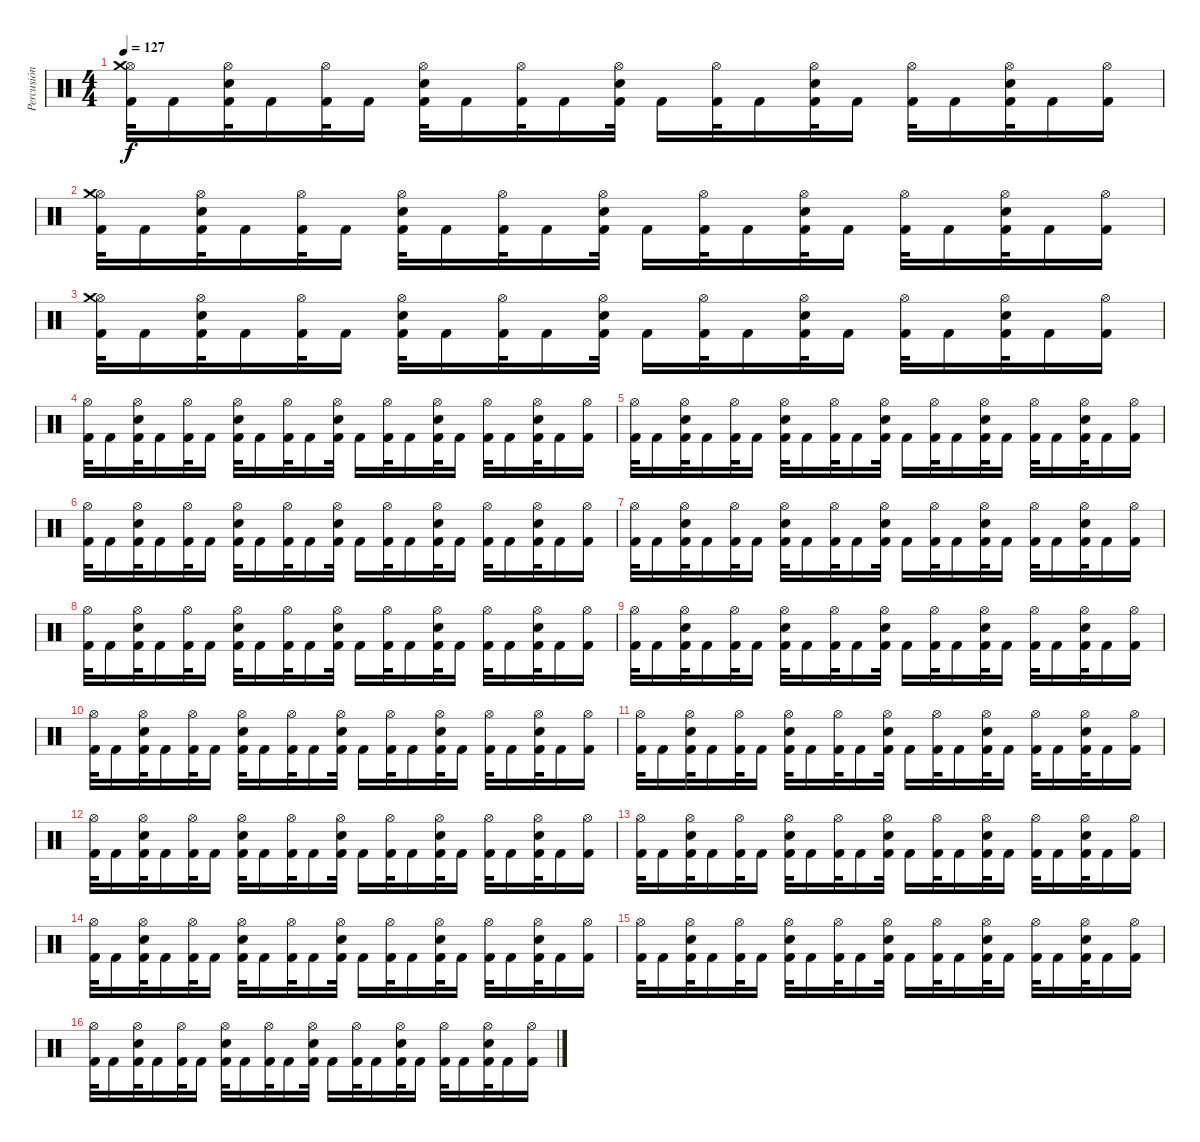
\track ("Percusión" "Percusión") {instrument percussion}
\staff {score}
\articulation defaults
\ts (4 4)
\tempo 127
\clef neutral
\ks c
("Hi-Hat (open)" "Kick (hit) 2" "Crash medium (hit)").32{dy f} "Kick (hit) 2".16 ("Hi-Hat (open)" "Electric Snare (hit)" "Kick (hit) 2").32 "Kick (hit) 2".16 ("Hi-Hat (open)" "Kick (hit) 2").32 "Kick (hit) 2".16 ("Hi-Hat (open)" "Electric Snare (hit)" "Kick (hit) 2").32 "Kick (hit) 2".16 ("Hi-Hat (open)" "Kick (hit) 2").32 "Kick (hit) 2".16 ("Hi-Hat (open)" "Electric Snare (hit)" "Kick (hit) 2").32 "Kick (hit) 2".16 ("Hi-Hat (open)" "Kick (hit) 2").32 "Kick (hit) 2".16 ("Hi-Hat (open)" "Electric Snare (hit)" "Kick (hit) 2").32 "Kick (hit) 2".16 ("Hi-Hat (open)" "Kick (hit) 2").32 "Kick (hit) 2".16 ("Hi-Hat (open)" "Electric Snare (hit)" "Kick (hit) 2").32 "Kick (hit) 2".16 ("Hi-Hat (open)" "Kick (hit) 2").16 |
("Hi-Hat (open)" "Kick (hit) 2" "Crash medium (hit)").32 "Kick (hit) 2".16 ("Hi-Hat (open)" "Electric Snare (hit)" "Kick (hit) 2").32 "Kick (hit) 2".16 ("Hi-Hat (open)" "Kick (hit) 2").32 "Kick (hit) 2".16 ("Hi-Hat (open)" "Electric Snare (hit)" "Kick (hit) 2").32 "Kick (hit) 2".16 ("Hi-Hat (open)" "Kick (hit) 2").32 "Kick (hit) 2".16 ("Hi-Hat (open)" "Electric Snare (hit)" "Kick (hit) 2").32 "Kick (hit) 2".16 ("Hi-Hat (open)" "Kick (hit) 2").32 "Kick (hit) 2".16 ("Hi-Hat (open)" "Electric Snare (hit)" "Kick (hit) 2").32 "Kick (hit) 2".16 ("Hi-Hat (open)" "Kick (hit) 2").32 "Kick (hit) 2".16 ("Hi-Hat (open)" "Electric Snare (hit)" "Kick (hit) 2").32 "Kick (hit) 2".16 ("Hi-Hat (open)" "Kick (hit) 2").16 |
("Hi-Hat (open)" "Kick (hit) 2" "Crash medium (hit)").32 "Kick (hit) 2".16 ("Hi-Hat (open)" "Electric Snare (hit)" "Kick (hit) 2").32 "Kick (hit) 2".16 ("Hi-Hat (open)" "Kick (hit) 2").32 "Kick (hit) 2".16 ("Hi-Hat (open)" "Electric Snare (hit)" "Kick (hit) 2").32 "Kick (hit) 2".16 ("Hi-Hat (open)" "Kick (hit) 2").32 "Kick (hit) 2".16 ("Hi-Hat (open)" "Electric Snare (hit)" "Kick (hit) 2").32 "Kick (hit) 2".16 ("Hi-Hat (open)" "Kick (hit) 2").32 "Kick (hit) 2".16 ("Hi-Hat (open)" "Electric Snare (hit)" "Kick (hit) 2").32 "Kick (hit) 2".16 ("Hi-Hat (open)" "Kick (hit) 2").32 "Kick (hit) 2".16 ("Hi-Hat (open)" "Electric Snare (hit)" "Kick (hit) 2").32 "Kick (hit) 2".16 ("Hi-Hat (open)" "Kick (hit) 2").16 |
("Hi-Hat (open)" "Kick (hit) 2").32 "Kick (hit) 2".16 ("Hi-Hat (open)" "Electric Snare (hit)" "Kick (hit) 2").32 "Kick (hit) 2".16 ("Hi-Hat (open)" "Kick (hit) 2").32 "Kick (hit) 2".16 ("Hi-Hat (open)" "Electric Snare (hit)" "Kick (hit) 2").32 "Kick (hit) 2".16 ("Hi-Hat (open)" "Kick (hit) 2").32 "Kick (hit) 2".16 ("Hi-Hat (open)" "Electric Snare (hit)" "Kick (hit) 2").32 "Kick (hit) 2".16 ("Hi-Hat (open)" "Kick (hit) 2").32 "Kick (hit) 2".16 ("Hi-Hat (open)" "Electric Snare (hit)" "Kick (hit) 2").32 "Kick (hit) 2".16 ("Hi-Hat (open)" "Kick (hit) 2").32 "Kick (hit) 2".16 ("Hi-Hat (open)" "Electric Snare (hit)" "Kick (hit) 2").32 "Kick (hit) 2".16 ("Hi-Hat (open)" "Kick (hit) 2").16 |
("Hi-Hat (open)" "Kick (hit) 2").32 "Kick (hit) 2".16 ("Hi-Hat (open)" "Electric Snare (hit)" "Kick (hit) 2").32 "Kick (hit) 2".16 ("Hi-Hat (open)" "Kick (hit) 2").32 "Kick (hit) 2".16 ("Hi-Hat (open)" "Electric Snare (hit)" "Kick (hit) 2").32 "Kick (hit) 2".16 ("Hi-Hat (open)" "Kick (hit) 2").32 "Kick (hit) 2".16 ("Hi-Hat (open)" "Electric Snare (hit)" "Kick (hit) 2").32 "Kick (hit) 2".16 ("Hi-Hat (open)" "Kick (hit) 2").32 "Kick (hit) 2".16 ("Hi-Hat (open)" "Electric Snare (hit)" "Kick (hit) 2").32 "Kick (hit) 2".16 ("Hi-Hat (open)" "Kick (hit) 2").32 "Kick (hit) 2".16 ("Hi-Hat (open)" "Electric Snare (hit)" "Kick (hit) 2").32 "Kick (hit) 2".16 ("Hi-Hat (open)" "Kick (hit) 2").16 |
("Hi-Hat (open)" "Kick (hit) 2").32 "Kick (hit) 2".16 ("Hi-Hat (open)" "Electric Snare (hit)" "Kick (hit) 2").32 "Kick (hit) 2".16 ("Hi-Hat (open)" "Kick (hit) 2").32 "Kick (hit) 2".16 ("Hi-Hat (open)" "Electric Snare (hit)" "Kick (hit) 2").32 "Kick (hit) 2".16 ("Hi-Hat (open)" "Kick (hit) 2").32 "Kick (hit) 2".16 ("Hi-Hat (open)" "Electric Snare (hit)" "Kick (hit) 2").32 "Kick (hit) 2".16 ("Hi-Hat (open)" "Kick (hit) 2").32 "Kick (hit) 2".16 ("Hi-Hat (open)" "Electric Snare (hit)" "Kick (hit) 2").32 "Kick (hit) 2".16 ("Hi-Hat (open)" "Kick (hit) 2").32 "Kick (hit) 2".16 ("Hi-Hat (open)" "Electric Snare (hit)" "Kick (hit) 2").32 "Kick (hit) 2".16 ("Hi-Hat (open)" "Kick (hit) 2").16 |
("Hi-Hat (open)" "Kick (hit) 2").32 "Kick (hit) 2".16 ("Hi-Hat (open)" "Electric Snare (hit)" "Kick (hit) 2").32 "Kick (hit) 2".16 ("Hi-Hat (open)" "Kick (hit) 2").32 "Kick (hit) 2".16 ("Hi-Hat (open)" "Electric Snare (hit)" "Kick (hit) 2").32 "Kick (hit) 2".16 ("Hi-Hat (open)" "Kick (hit) 2").32 "Kick (hit) 2".16 ("Hi-Hat (open)" "Electric Snare (hit)" "Kick (hit) 2").32 "Kick (hit) 2".16 ("Hi-Hat (open)" "Kick (hit) 2").32 "Kick (hit) 2".16 ("Hi-Hat (open)" "Electric Snare (hit)" "Kick (hit) 2").32 "Kick (hit) 2".16 ("Hi-Hat (open)" "Kick (hit) 2").32 "Kick (hit) 2".16 ("Hi-Hat (open)" "Electric Snare (hit)" "Kick (hit) 2").32 "Kick (hit) 2".16 ("Hi-Hat (open)" "Kick (hit) 2").16 |
("Hi-Hat (open)" "Kick (hit) 2").32 "Kick (hit) 2".16 ("Hi-Hat (open)" "Electric Snare (hit)" "Kick (hit) 2").32 "Kick (hit) 2".16 ("Hi-Hat (open)" "Kick (hit) 2").32 "Kick (hit) 2".16 ("Hi-Hat (open)" "Electric Snare (hit)" "Kick (hit) 2").32 "Kick (hit) 2".16 ("Hi-Hat (open)" "Kick (hit) 2").32 "Kick (hit) 2".16 ("Hi-Hat (open)" "Electric Snare (hit)" "Kick (hit) 2").32 "Kick (hit) 2".16 ("Hi-Hat (open)" "Kick (hit) 2").32 "Kick (hit) 2".16 ("Hi-Hat (open)" "Electric Snare (hit)" "Kick (hit) 2").32 "Kick (hit) 2".16 ("Hi-Hat (open)" "Kick (hit) 2").32 "Kick (hit) 2".16 ("Hi-Hat (open)" "Electric Snare (hit)" "Kick (hit) 2").32 "Kick (hit) 2".16 ("Hi-Hat (open)" "Kick (hit) 2").16 |
("Hi-Hat (open)" "Kick (hit) 2").32 "Kick (hit) 2".16 ("Hi-Hat (open)" "Electric Snare (hit)" "Kick (hit) 2").32 "Kick (hit) 2".16 ("Hi-Hat (open)" "Kick (hit) 2").32 "Kick (hit) 2".16 ("Hi-Hat (open)" "Electric Snare (hit)" "Kick (hit) 2").32 "Kick (hit) 2".16 ("Hi-Hat (open)" "Kick (hit) 2").32 "Kick (hit) 2".16 ("Hi-Hat (open)" "Electric Snare (hit)" "Kick (hit) 2").32 "Kick (hit) 2".16 ("Hi-Hat (open)" "Kick (hit) 2").32 "Kick (hit) 2".16 ("Hi-Hat (open)" "Electric Snare (hit)" "Kick (hit) 2").32 "Kick (hit) 2".16 ("Hi-Hat (open)" "Kick (hit) 2").32 "Kick (hit) 2".16 ("Hi-Hat (open)" "Electric Snare (hit)" "Kick (hit) 2").32 "Kick (hit) 2".16 ("Hi-Hat (open)" "Kick (hit) 2").16 |
("Hi-Hat (open)" "Kick (hit) 2").32 "Kick (hit) 2".16 ("Hi-Hat (open)" "Electric Snare (hit)" "Kick (hit) 2").32 "Kick (hit) 2".16 ("Hi-Hat (open)" "Kick (hit) 2").32 "Kick (hit) 2".16 ("Hi-Hat (open)" "Electric Snare (hit)" "Kick (hit) 2").32 "Kick (hit) 2".16 ("Hi-Hat (open)" "Kick (hit) 2").32 "Kick (hit) 2".16 ("Hi-Hat (open)" "Electric Snare (hit)" "Kick (hit) 2").32 "Kick (hit) 2".16 ("Hi-Hat (open)" "Kick (hit) 2").32 "Kick (hit) 2".16 ("Hi-Hat (open)" "Electric Snare (hit)" "Kick (hit) 2").32 "Kick (hit) 2".16 ("Hi-Hat (open)" "Kick (hit) 2").32 "Kick (hit) 2".16 ("Hi-Hat (open)" "Electric Snare (hit)" "Kick (hit) 2").32 "Kick (hit) 2".16 ("Hi-Hat (open)" "Kick (hit) 2").16 |
("Hi-Hat (open)" "Kick (hit) 2").32 "Kick (hit) 2".16 ("Hi-Hat (open)" "Electric Snare (hit)" "Kick (hit) 2").32 "Kick (hit) 2".16 ("Hi-Hat (open)" "Kick (hit) 2").32 "Kick (hit) 2".16 ("Hi-Hat (open)" "Electric Snare (hit)" "Kick (hit) 2").32 "Kick (hit) 2".16 ("Hi-Hat (open)" "Kick (hit) 2").32 "Kick (hit) 2".16 ("Hi-Hat (open)" "Electric Snare (hit)" "Kick (hit) 2").32 "Kick (hit) 2".16 ("Hi-Hat (open)" "Kick (hit) 2").32 "Kick (hit) 2".16 ("Hi-Hat (open)" "Electric Snare (hit)" "Kick (hit) 2").32 "Kick (hit) 2".16 ("Hi-Hat (open)" "Kick (hit) 2").32 "Kick (hit) 2".16 ("Hi-Hat (open)" "Electric Snare (hit)" "Kick (hit) 2").32 "Kick (hit) 2".16 ("Hi-Hat (open)" "Kick (hit) 2").16 |
("Hi-Hat (open)" "Kick (hit) 2").32 "Kick (hit) 2".16 ("Hi-Hat (open)" "Electric Snare (hit)" "Kick (hit) 2").32 "Kick (hit) 2".16 ("Hi-Hat (open)" "Kick (hit) 2").32 "Kick (hit) 2".16 ("Hi-Hat (open)" "Electric Snare (hit)" "Kick (hit) 2").32 "Kick (hit) 2".16 ("Hi-Hat (open)" "Kick (hit) 2").32 "Kick (hit) 2".16 ("Hi-Hat (open)" "Electric Snare (hit)" "Kick (hit) 2").32 "Kick (hit) 2".16 ("Hi-Hat (open)" "Kick (hit) 2").32 "Kick (hit) 2".16 ("Hi-Hat (open)" "Electric Snare (hit)" "Kick (hit) 2").32 "Kick (hit) 2".16 ("Hi-Hat (open)" "Kick (hit) 2").32 "Kick (hit) 2".16 ("Hi-Hat (open)" "Electric Snare (hit)" "Kick (hit) 2").32 "Kick (hit) 2".16 ("Hi-Hat (open)" "Kick (hit) 2").16 |
("Hi-Hat (open)" "Kick (hit) 2").32 "Kick (hit) 2".16 ("Hi-Hat (open)" "Electric Snare (hit)" "Kick (hit) 2").32 "Kick (hit) 2".16 ("Hi-Hat (open)" "Kick (hit) 2").32 "Kick (hit) 2".16 ("Hi-Hat (open)" "Electric Snare (hit)" "Kick (hit) 2").32 "Kick (hit) 2".16 ("Hi-Hat (open)" "Kick (hit) 2").32 "Kick (hit) 2".16 ("Hi-Hat (open)" "Electric Snare (hit)" "Kick (hit) 2").32 "Kick (hit) 2".16 ("Hi-Hat (open)" "Kick (hit) 2").32 "Kick (hit) 2".16 ("Hi-Hat (open)" "Electric Snare (hit)" "Kick (hit) 2").32 "Kick (hit) 2".16 ("Hi-Hat (open)" "Kick (hit) 2").32 "Kick (hit) 2".16 ("Hi-Hat (open)" "Electric Snare (hit)" "Kick (hit) 2").32 "Kick (hit) 2".16 ("Hi-Hat (open)" "Kick (hit) 2").16 |
("Hi-Hat (open)" "Kick (hit) 2").32 "Kick (hit) 2".16 ("Hi-Hat (open)" "Electric Snare (hit)" "Kick (hit) 2").32 "Kick (hit) 2".16 ("Hi-Hat (open)" "Kick (hit) 2").32 "Kick (hit) 2".16 ("Hi-Hat (open)" "Electric Snare (hit)" "Kick (hit) 2").32 "Kick (hit) 2".16 ("Hi-Hat (open)" "Kick (hit) 2").32 "Kick (hit) 2".16 ("Hi-Hat (open)" "Electric Snare (hit)" "Kick (hit) 2").32 "Kick (hit) 2".16 ("Hi-Hat (open)" "Kick (hit) 2").32 "Kick (hit) 2".16 ("Hi-Hat (open)" "Electric Snare (hit)" "Kick (hit) 2").32 "Kick (hit) 2".16 ("Hi-Hat (open)" "Kick (hit) 2").32 "Kick (hit) 2".16 ("Hi-Hat (open)" "Electric Snare (hit)" "Kick (hit) 2").32 "Kick (hit) 2".16 ("Hi-Hat (open)" "Kick (hit) 2").16 |
("Hi-Hat (open)" "Kick (hit) 2").32 "Kick (hit) 2".16 ("Hi-Hat (open)" "Electric Snare (hit)" "Kick (hit) 2").32 "Kick (hit) 2".16 ("Hi-Hat (open)" "Kick (hit) 2").32 "Kick (hit) 2".16 ("Hi-Hat (open)" "Electric Snare (hit)" "Kick (hit) 2").32 "Kick (hit) 2".16 ("Hi-Hat (open)" "Kick (hit) 2").32 "Kick (hit) 2".16 ("Hi-Hat (open)" "Electric Snare (hit)" "Kick (hit) 2").32 "Kick (hit) 2".16 ("Hi-Hat (open)" "Kick (hit) 2").32 "Kick (hit) 2".16 ("Hi-Hat (open)" "Electric Snare (hit)" "Kick (hit) 2").32 "Kick (hit) 2".16 ("Hi-Hat (open)" "Kick (hit) 2").32 "Kick (hit) 2".16 ("Hi-Hat (open)" "Electric Snare (hit)" "Kick (hit) 2").32 "Kick (hit) 2".16 ("Hi-Hat (open)" "Kick (hit) 2").16 |
("Hi-Hat (open)" "Kick (hit) 2").32 "Kick (hit) 2".16 ("Hi-Hat (open)" "Electric Snare (hit)" "Kick (hit) 2").32 "Kick (hit) 2".16 ("Hi-Hat (open)" "Kick (hit) 2").32 "Kick (hit) 2".16 ("Hi-Hat (open)" "Electric Snare (hit)" "Kick (hit) 2").32 "Kick (hit) 2".16 ("Hi-Hat (open)" "Kick (hit) 2").32 "Kick (hit) 2".16 ("Hi-Hat (open)" "Electric Snare (hit)" "Kick (hit) 2").32 "Kick (hit) 2".16 ("Hi-Hat (open)" "Kick (hit) 2").32 "Kick (hit) 2".16 ("Hi-Hat (open)" "Electric Snare (hit)" "Kick (hit) 2").32 "Kick (hit) 2".16 ("Hi-Hat (open)" "Kick (hit) 2").32 "Kick (hit) 2".16 ("Hi-Hat (open)" "Electric Snare (hit)" "Kick (hit) 2").32 "Kick (hit) 2".16 ("Hi-Hat (open)" "Kick (hit) 2").16
